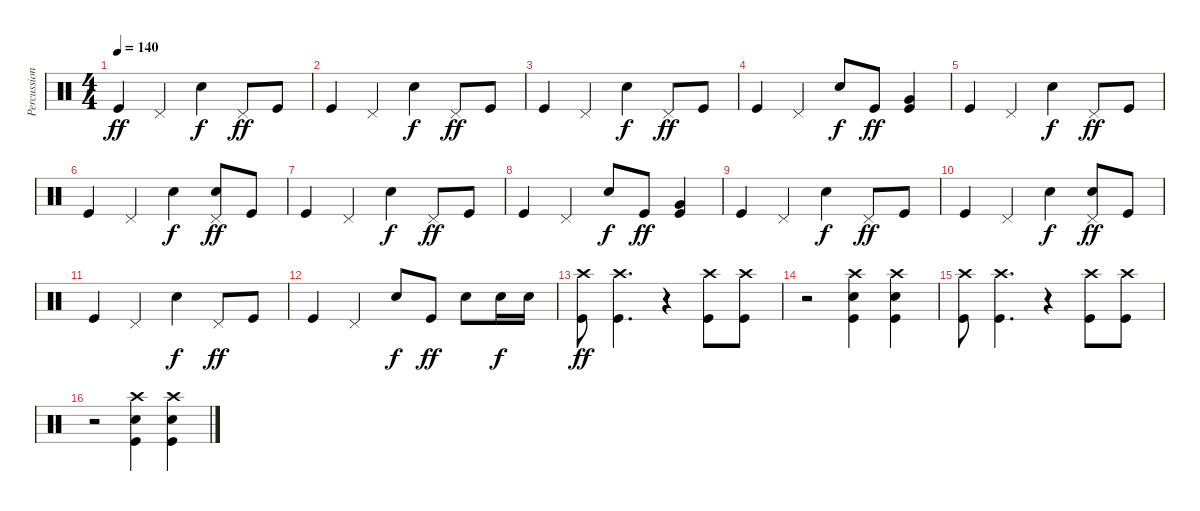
\track ("Percussion" "Percussion") {instrument percussion}
\staff {score}
\articulation defaults
\ts (4 4)
\tempo 140
\clef neutral
\ks c "Kick (hit)".4{dy ff} "Pedal Hi-Hat (hit)".4 "Snare (hit) 2".4{dy f} "Pedal Hi-Hat (hit)".8{dy ff} "Kick (hit)".8
|
"Kick (hit)".4 "Pedal Hi-Hat (hit)".4 "Snare (hit) 2".4{dy f} "Pedal Hi-Hat (hit)".8{dy ff} "Kick (hit)".8 |
"Kick (hit)".4 "Pedal Hi-Hat (hit)".4 "Snare (hit) 2".4{dy f} "Pedal Hi-Hat (hit)".8{dy ff} "Kick (hit)".8 |
"Kick (hit)".4 "Pedal Hi-Hat (hit)".4 "Snare (hit) 2".8{dy f} "Kick (hit)".8{dy ff} ("Kick (hit)" "Very Low Tom (hit)").4 |
"Kick (hit)".4 "Pedal Hi-Hat (hit)".4 "Snare (hit) 2".4{dy f} "Pedal Hi-Hat (hit)".8{dy ff} "Kick (hit)".8 |
"Kick (hit)".4 "Pedal Hi-Hat (hit)".4 "Snare (hit) 2".4{dy f} ("Pedal Hi-Hat (hit)" "Snare (hit) 2").8{dy ff} "Kick (hit)".8 |
"Kick (hit)".4 "Pedal Hi-Hat (hit)".4 "Snare (hit) 2".4{dy f} "Pedal Hi-Hat (hit)".8{dy ff} "Kick (hit)".8 |
"Kick (hit)".4 "Pedal Hi-Hat (hit)".4 "Snare (hit) 2".8{dy f} "Kick (hit)".8{dy ff} ("Kick (hit)" "Very Low Tom (hit)").4 |
"Kick (hit)".4 "Pedal Hi-Hat (hit)".4 "Snare (hit) 2".4{dy f} "Pedal Hi-Hat (hit)".8{dy ff} "Kick (hit)".8 |
"Kick (hit)".4 "Pedal Hi-Hat (hit)".4 "Snare (hit) 2".4{dy f} ("Pedal Hi-Hat (hit)" "Snare (hit) 2").8{dy ff} "Kick (hit)".8 |
"Kick (hit)".4 "Pedal Hi-Hat (hit)".4 "Snare (hit) 2".4{dy f} "Pedal Hi-Hat (hit)".8{dy ff} "Kick (hit)".8 |
"Kick (hit)".4 "Pedal Hi-Hat (hit)".4 "Snare (hit) 2".8{dy f} "Kick (hit)".8{dy ff} "Snare (hit) 2".8 "Snare (hit) 2".16{dy f} "Snare (hit) 2".16 |
("Crash high (hit)" "Kick (hit)").8{dy ff} ("Crash high (hit)" "Kick (hit)").4{d} r.4 ("Crash high (hit)" "Kick (hit)").8 ("Crash high (hit)" "Kick (hit)").8 |
r.2 ("Crash high (hit)" "Kick (hit)" "Snare (hit) 2").4 ("Crash high (hit)" "Kick (hit)" "Snare (hit) 2").4 |
("Crash high (hit)" "Kick (hit)").8 ("Crash high (hit)" "Kick (hit)").4{d} r.4 ("Crash high (hit)" "Kick (hit)").8 ("Crash high (hit)" "Kick (hit)").8 |
r.2 ("Crash high (hit)" "Kick (hit)" "Snare (hit) 2").4 ("Crash high (hit)" "Kick (hit)" "Snare (hit) 2").4
